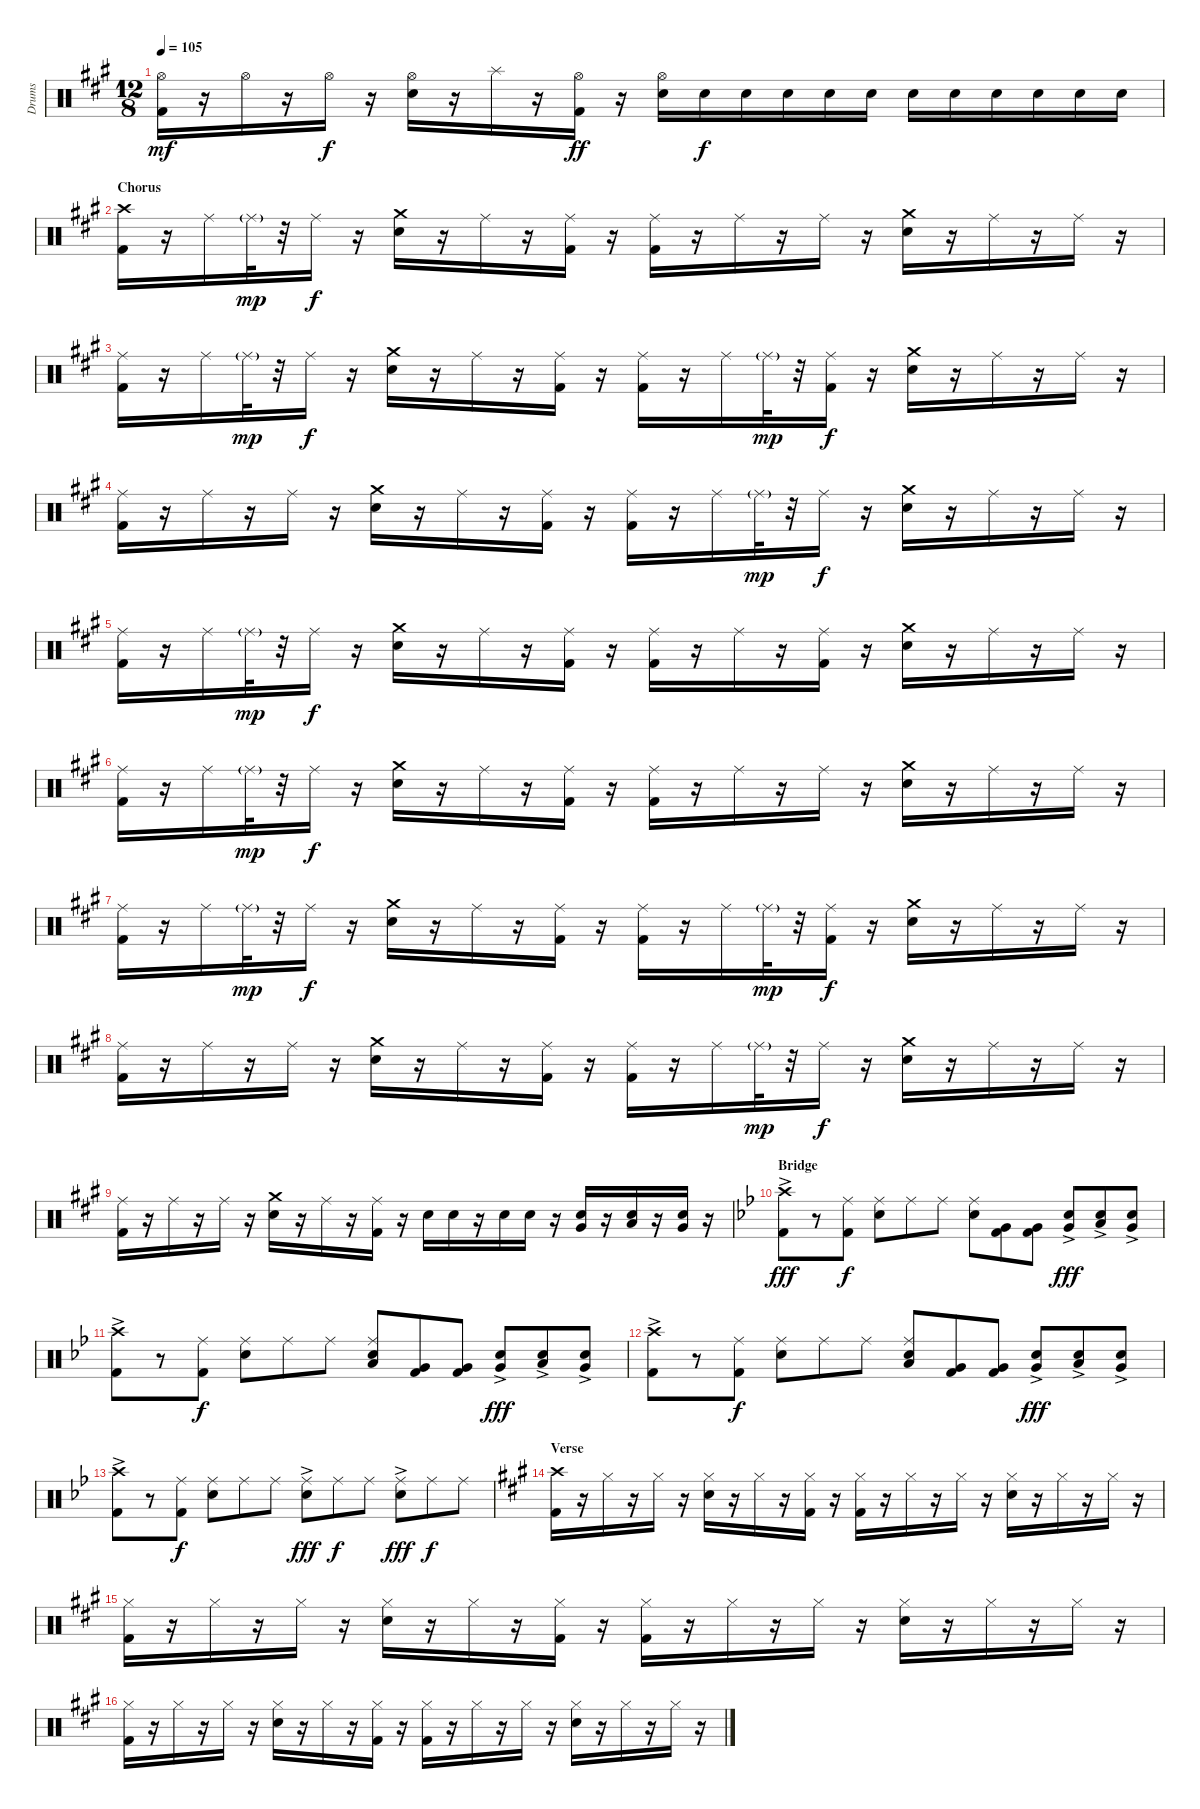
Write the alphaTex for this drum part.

\track ("Drums" "Drums") {instrument percussion}
\staff {score}
\articulation defaults
\ts (12 8)
\tempo 105
\clef neutral
\ks a
("Hi-Hat (open)" "Kick (hit) 2").16{dy mf} r.16 "Hi-Hat (open)".16 r.16 "Hi-Hat (open)".16{dy f} r.16 ("Hi-Hat (open)" "Snare (hit) 2").16 r.16 "Splash (hit)".16 r.16 ("Hi-Hat (open)" "Kick (hit) 2").16{dy ff} r.16 ("Hi-Hat (open)" "Electric Snare (hit)").16 "Electric Snare (hit)".16{dy f} "Electric Snare (hit)".16 "Electric Snare (hit)".16 "Electric Snare (hit)".16 "Electric Snare (hit)".16 "Electric Snare (hit)".16 "Electric Snare (hit)".16 "Electric Snare (hit)".16 "Electric Snare (hit)".16 "Electric Snare (hit)".16 "Electric Snare (hit)".16 |
\section ("" "Chorus")
("Crash high (hit)" "Kick (hit) 2").16 r.16 "Ride (middle)".16 "Ride (middle)"{g}.32{dy mp} r.32 "Ride (middle)".16{dy f} r.16 ("Crash medium (hit)" "Snare (hit) 2").16 r.16 "Ride (middle)".16 r.16 ("Ride (middle)" "Kick (hit) 2").16 r.16 ("Ride (middle)" "Kick (hit) 2").16 r.16 "Ride (middle)".16 r.16 "Ride (middle)".16 r.16 ("Crash medium (hit)" "Snare (hit) 2").16 r.16 "Ride (middle)".16 r.16 "Ride (middle)".16 r.16 |
("Ride (middle)" "Kick (hit) 2").16 r.16 "Ride (middle)".16 "Ride (middle)"{g}.32{dy mp} r.32 "Ride (middle)".16{dy f} r.16 ("Crash medium (hit)" "Snare (hit) 2").16 r.16 "Ride (middle)".16 r.16 ("Ride (middle)" "Kick (hit) 2").16 r.16 ("Ride (middle)" "Kick (hit) 2").16 r.16 "Ride (middle)".16 "Ride (middle)"{g}.32{dy mp} r.32 ("Ride (middle)" "Kick (hit) 2").16{dy f} r.16 ("Crash medium (hit)" "Snare (hit) 2").16 r.16 "Ride (middle)".16 r.16 "Ride (middle)".16 r.16 |
("Ride (middle)" "Kick (hit) 2").16 r.16 "Ride (middle)".16 r.16 "Ride (middle)".16 r.16 ("Crash medium (hit)" "Snare (hit) 2").16 r.16 "Ride (middle)".16 r.16 ("Ride (middle)" "Kick (hit) 2").16 r.16 ("Ride (middle)" "Kick (hit) 2").16 r.16 "Ride (middle)".16 "Ride (middle)"{g}.32{dy mp} r.32 "Ride (middle)".16{dy f} r.16 ("Crash medium (hit)" "Snare (hit) 2").16 r.16 "Ride (middle)".16 r.16 "Ride (middle)".16 r.16 |
("Ride (middle)" "Kick (hit) 2").16 r.16 "Ride (middle)".16 "Ride (middle)"{g}.32{dy mp} r.32 "Ride (middle)".16{dy f} r.16 ("Crash medium (hit)" "Snare (hit) 2").16 r.16 "Ride (middle)".16 r.16 ("Ride (middle)" "Kick (hit) 2").16 r.16 ("Ride (middle)" "Kick (hit) 2").16 r.16 "Ride (middle)".16 r.16 ("Ride (middle)" "Kick (hit) 2").16 r.16 ("Crash medium (hit)" "Snare (hit) 2").16 r.16 "Ride (middle)".16 r.16 "Ride (middle)".16 r.16 |
("Ride (middle)" "Kick (hit) 2").16 r.16 "Ride (middle)".16 "Ride (middle)"{g}.32{dy mp} r.32 "Ride (middle)".16{dy f} r.16 ("Crash medium (hit)" "Snare (hit) 2").16 r.16 "Ride (middle)".16 r.16 ("Ride (middle)" "Kick (hit) 2").16 r.16 ("Ride (middle)" "Kick (hit) 2").16 r.16 "Ride (middle)".16 r.16 "Ride (middle)".16 r.16 ("Crash medium (hit)" "Snare (hit) 2").16 r.16 "Ride (middle)".16 r.16 "Ride (middle)".16 r.16 |
("Ride (middle)" "Kick (hit) 2").16 r.16 "Ride (middle)".16 "Ride (middle)"{g}.32{dy mp} r.32 "Ride (middle)".16{dy f} r.16 ("Crash medium (hit)" "Snare (hit) 2").16 r.16 "Ride (middle)".16 r.16 ("Ride (middle)" "Kick (hit) 2").16 r.16 ("Ride (middle)" "Kick (hit) 2").16 r.16 "Ride (middle)".16 "Ride (middle)"{g}.32{dy mp} r.32 ("Ride (middle)" "Kick (hit) 2").16{dy f} r.16 ("Crash medium (hit)" "Snare (hit) 2").16 r.16 "Ride (middle)".16 r.16 "Ride (middle)".16 r.16 |
("Ride (middle)" "Kick (hit) 2").16 r.16 "Ride (middle)".16 r.16 "Ride (middle)".16 r.16 ("Crash medium (hit)" "Snare (hit) 2").16 r.16 "Ride (middle)".16 r.16 ("Ride (middle)" "Kick (hit) 2").16 r.16 ("Ride (middle)" "Kick (hit) 2").16 r.16 "Ride (middle)".16 "Ride (middle)"{g}.32{dy mp} r.32 "Ride (middle)".16{dy f} r.16 ("Crash medium (hit)" "Snare (hit) 2").16 r.16 "Ride (middle)".16 r.16 "Ride (middle)".16 r.16 |
("Ride (middle)" "Kick (hit) 2").16 r.16 "Ride (middle)".16 r.16 "Ride (middle)".16 r.16 ("Crash medium (hit)" "Snare (hit) 2").16 r.16 "Ride (middle)".16 r.16 ("Ride (middle)" "Kick (hit) 2").16 r.16 "Electric Snare (hit)".16 "Electric Snare (hit)".16 r.16 "Electric Snare (hit)".16 "Electric Snare (hit)".16 r.16 ("Very Low Tom (hit)" "Snare (hit) 2").16 r.16 ("Low Tom (hit)" "Snare (hit) 2").16 r.16 ("Very Low Tom (hit)" "Snare (hit) 2").16 r.16 |
\section ("" "Bridge")
\ks bb
("Crash high (hit)"{ac} "Kick (hit) 2"{ac}).8{dy fff} r.8 ("Ride (middle)" "Kick (hit) 2").8{dy f} ("Ride (middle)" "Snare (hit) 2").8 "Ride (middle)".8 "Ride (middle)".8 ("Ride (middle)" "Snare (hit) 2").8 ("Very Low Tom (hit)" "Kick (hit) 2").8 ("Very Low Tom (hit)" "Kick (hit) 2").8 ("Very Low Tom (hit)"{ac} "Snare (hit) 2"{ac}).8{dy fff} ("Low Tom (hit)"{ac} "Snare (hit) 2"{ac}).8 ("Very Low Tom (hit)"{ac} "Snare (hit) 2"{ac}).8 |
("Crash high (hit)"{ac} "Kick (hit) 2"{ac}).8 r.8 ("Ride (middle)" "Kick (hit) 2").8{dy f} ("Ride (middle)" "Snare (hit) 2").8 "Ride (middle)".8 "Ride (middle)".8 ("Ride (middle)" "Low Tom (hit)" "Snare (hit) 2").8 ("Very Low Tom (hit)" "Kick (hit) 2").8 ("Very Low Tom (hit)" "Kick (hit) 2").8 ("Very Low Tom (hit)"{ac} "Snare (hit) 2"{ac}).8{dy fff} ("Low Tom (hit)"{ac} "Snare (hit) 2"{ac}).8 ("Very Low Tom (hit)"{ac} "Snare (hit) 2"{ac}).8 |
("Crash high (hit)"{ac} "Kick (hit) 2"{ac}).8 r.8 ("Ride (middle)" "Kick (hit) 2").8{dy f} ("Ride (middle)" "Snare (hit) 2").8 "Ride (middle)".8 "Ride (middle)".8 ("Ride (middle)" "Low Tom (hit)" "Snare (hit) 2").8 ("Very Low Tom (hit)" "Kick (hit) 2").8 ("Very Low Tom (hit)" "Kick (hit) 2").8 ("Very Low Tom (hit)"{ac} "Snare (hit) 2"{ac}).8{dy fff} ("Low Tom (hit)"{ac} "Snare (hit) 2"{ac}).8 ("Very Low Tom (hit)"{ac} "Snare (hit) 2"{ac}).8 |
("Crash high (hit)"{ac} "Kick (hit) 2"{ac}).8 r.8 ("Ride (middle)" "Kick (hit) 2").8{dy f} ("Ride (middle)" "Snare (hit) 2").8 "Ride (middle)".8 "Ride (middle)".8 ("Ride (middle)" "Snare (hit) 2"{ac}).8{dy fff} "Ride (middle)".8{dy f} "Ride (middle)".8 ("Ride (middle)" "Snare (hit) 2"{ac}).8{dy fff} "Ride (middle)".8{dy f} "Ride (middle)".8 |
\section ("" "Verse")
\ks a
("Crash high (hit)" "Kick (hit) 2").16 r.16 "Hi-Hat (closed)".16 r.16 "Hi-Hat (closed)".16 r.16 ("Hi-Hat (closed)" "Snare (hit) 2").16 r.16 "Hi-Hat (closed)".16 r.16 ("Hi-Hat (closed)" "Kick (hit) 2").16 r.16 ("Hi-Hat (closed)" "Kick (hit) 2").16 r.16 "Hi-Hat (closed)".16 r.16 "Hi-Hat (closed)".16 r.16 ("Hi-Hat (closed)" "Snare (hit) 2").16 r.16 "Hi-Hat (closed)".16 r.16 "Hi-Hat (closed)".16 r.16 |
("Hi-Hat (closed)" "Kick (hit) 2").16 r.16 "Hi-Hat (closed)".16 r.16 "Hi-Hat (closed)".16 r.16 ("Hi-Hat (closed)" "Snare (hit) 2").16 r.16 "Hi-Hat (closed)".16 r.16 ("Hi-Hat (closed)" "Kick (hit) 2").16 r.16 ("Hi-Hat (closed)" "Kick (hit) 2").16 r.16 "Hi-Hat (closed)".16 r.16 "Hi-Hat (closed)".16 r.16 ("Hi-Hat (closed)" "Snare (hit) 2").16 r.16 "Hi-Hat (closed)".16 r.16 "Hi-Hat (closed)".16 r.16 |
("Hi-Hat (closed)" "Kick (hit) 2").16 r.16 "Hi-Hat (closed)".16 r.16 "Hi-Hat (closed)".16 r.16 ("Hi-Hat (closed)" "Snare (hit) 2").16 r.16 "Hi-Hat (closed)".16 r.16 ("Hi-Hat (closed)" "Kick (hit) 2").16 r.16 ("Hi-Hat (closed)" "Kick (hit) 2").16 r.16 "Hi-Hat (closed)".16 r.16 "Hi-Hat (closed)".16 r.16 ("Hi-Hat (closed)" "Snare (hit) 2").16 r.16 "Hi-Hat (closed)".16 r.16 "Hi-Hat (closed)".16 r.16
